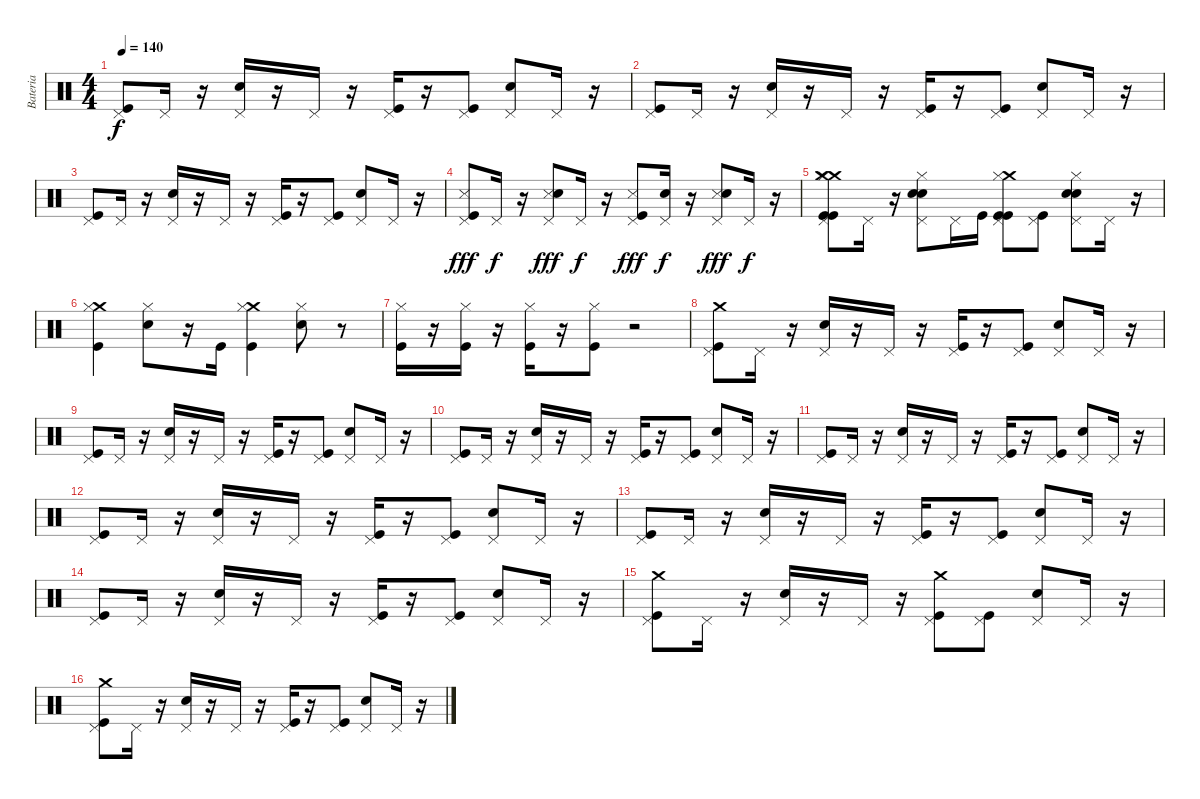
\track ("Bateria" "Bateria") {instrument percussion}
\staff {score}
\articulation defaults
\ts (4 4)
\tempo 140
\clef neutral
\ks c
("Pedal Hi-Hat (hit)" "Kick (hit)").8{dy f} "Pedal Hi-Hat (hit)".16 r.16 ("Pedal Hi-Hat (hit)" "Snare (hit) 2").16 r.16 "Pedal Hi-Hat (hit)".16 r.16 ("Pedal Hi-Hat (hit)" "Kick (hit)").16 r.16 ("Pedal Hi-Hat (hit)" "Kick (hit)").8 ("Pedal Hi-Hat (hit)" "Snare (hit) 2").8 "Pedal Hi-Hat (hit)".16 r.16 |
("Pedal Hi-Hat (hit)" "Kick (hit)").8 "Pedal Hi-Hat (hit)".16 r.16 ("Pedal Hi-Hat (hit)" "Snare (hit) 2").16 r.16 "Pedal Hi-Hat (hit)".16 r.16 ("Pedal Hi-Hat (hit)" "Kick (hit)").16 r.16 ("Pedal Hi-Hat (hit)" "Kick (hit)").8 ("Pedal Hi-Hat (hit)" "Snare (hit) 2").8 "Pedal Hi-Hat (hit)".16 r.16 |
("Pedal Hi-Hat (hit)" "Kick (hit)").8 "Pedal Hi-Hat (hit)".16 r.16 ("Pedal Hi-Hat (hit)" "Snare (hit) 2").16 r.16 "Pedal Hi-Hat (hit)".16 r.16 ("Pedal Hi-Hat (hit)" "Kick (hit)").16 r.16 ("Pedal Hi-Hat (hit)" "Kick (hit)").8 ("Pedal Hi-Hat (hit)" "Snare (hit) 2").8 "Pedal Hi-Hat (hit)".16 r.16 |
("Snare (side stick) 3" "Pedal Hi-Hat (hit)" "Kick (hit)").8{dy fff} "Pedal Hi-Hat (hit)".16{dy f} r.16 ("Snare (side stick) 3" "Pedal Hi-Hat (hit)" "Snare (hit) 2").8{dy fff} "Pedal Hi-Hat (hit)".16{dy f} r.16 ("Snare (side stick) 3" "Pedal Hi-Hat (hit)" "Kick (hit)").8{dy fff} ("Pedal Hi-Hat (hit)" "Snare (hit) 2").16{dy f} r.16 ("Snare (side stick) 3" "Pedal Hi-Hat (hit)" "Snare (hit) 2").8{dy fff} "Pedal Hi-Hat (hit)".16{dy f} r.16 |
("Crash medium (hit)" "Pedal Hi-Hat (hit)" "Kick (hit)" "Crash medium (hit)" "Hi-Hat (closed)" "Kick (hit)").8 "Pedal Hi-Hat (hit)".16 r.16 ("Pedal Hi-Hat (hit)" "Snare (hit) 2" "Hi-Hat (closed)" "Snare (hit) 2").8 "Pedal Hi-Hat (hit)".16 "Kick (hit)".16 ("Pedal Hi-Hat (hit)" "Kick (hit)" "Kick (hit)" "Crash medium (hit)" "Hi-Hat (closed)").8 ("Pedal Hi-Hat (hit)" "Kick (hit)").8 ("Pedal Hi-Hat (hit)" "Snare (hit) 2" "Snare (hit) 2" "Hi-Hat (closed)").8 "Pedal Hi-Hat (hit)".16 r.16 |
("Crash medium (hit)" "Hi-Hat (closed)" "Kick (hit)").4 ("Hi-Hat (closed)" "Snare (hit) 2").8 r.16 "Kick (hit)".16 ("Crash medium (hit)" "Hi-Hat (closed)" "Kick (hit)").4 ("Hi-Hat (closed)" "Snare (hit) 2").8 r.8 |
("Hi-Hat (closed)" "Kick (hit)").16 r.16 ("Hi-Hat (closed)" "Kick (hit)").16 r.16 ("Hi-Hat (closed)" "Kick (hit)").16 r.16 ("Hi-Hat (closed)" "Kick (hit)").8 r.2 |
("Crash medium (hit)" "Pedal Hi-Hat (hit)" "Kick (hit)").8 "Pedal Hi-Hat (hit)".16 r.16 ("Pedal Hi-Hat (hit)" "Snare (hit) 2").16 r.16 "Pedal Hi-Hat (hit)".16 r.16 ("Pedal Hi-Hat (hit)" "Kick (hit)").16 r.16 ("Pedal Hi-Hat (hit)" "Kick (hit)").8 ("Pedal Hi-Hat (hit)" "Snare (hit) 2").8 "Pedal Hi-Hat (hit)".16 r.16 |
("Pedal Hi-Hat (hit)" "Kick (hit)").8 "Pedal Hi-Hat (hit)".16 r.16 ("Pedal Hi-Hat (hit)" "Snare (hit) 2").16 r.16 "Pedal Hi-Hat (hit)".16 r.16 ("Pedal Hi-Hat (hit)" "Kick (hit)").16 r.16 ("Pedal Hi-Hat (hit)" "Kick (hit)").8 ("Pedal Hi-Hat (hit)" "Snare (hit) 2").8 "Pedal Hi-Hat (hit)".16 r.16 |
("Pedal Hi-Hat (hit)" "Kick (hit)").8 "Pedal Hi-Hat (hit)".16 r.16 ("Pedal Hi-Hat (hit)" "Snare (hit) 2").16 r.16 "Pedal Hi-Hat (hit)".16 r.16 ("Pedal Hi-Hat (hit)" "Kick (hit)").16 r.16 ("Pedal Hi-Hat (hit)" "Kick (hit)").8 ("Pedal Hi-Hat (hit)" "Snare (hit) 2").8 "Pedal Hi-Hat (hit)".16 r.16 |
("Pedal Hi-Hat (hit)" "Kick (hit)").8 "Pedal Hi-Hat (hit)".16 r.16 ("Pedal Hi-Hat (hit)" "Snare (hit) 2").16 r.16 "Pedal Hi-Hat (hit)".16 r.16 ("Pedal Hi-Hat (hit)" "Kick (hit)").16 r.16 ("Pedal Hi-Hat (hit)" "Kick (hit)").8 ("Pedal Hi-Hat (hit)" "Snare (hit) 2").8 "Pedal Hi-Hat (hit)".16 r.16 |
("Pedal Hi-Hat (hit)" "Kick (hit)").8 "Pedal Hi-Hat (hit)".16 r.16 ("Pedal Hi-Hat (hit)" "Snare (hit) 2").16 r.16 "Pedal Hi-Hat (hit)".16 r.16 ("Pedal Hi-Hat (hit)" "Kick (hit)").16 r.16 ("Pedal Hi-Hat (hit)" "Kick (hit)").8 ("Pedal Hi-Hat (hit)" "Snare (hit) 2").8 "Pedal Hi-Hat (hit)".16 r.16 |
("Pedal Hi-Hat (hit)" "Kick (hit)").8 "Pedal Hi-Hat (hit)".16 r.16 ("Pedal Hi-Hat (hit)" "Snare (hit) 2").16 r.16 "Pedal Hi-Hat (hit)".16 r.16 ("Pedal Hi-Hat (hit)" "Kick (hit)").16 r.16 ("Pedal Hi-Hat (hit)" "Kick (hit)").8 ("Pedal Hi-Hat (hit)" "Snare (hit) 2").8 "Pedal Hi-Hat (hit)".16 r.16 |
("Pedal Hi-Hat (hit)" "Kick (hit)").8 "Pedal Hi-Hat (hit)".16 r.16 ("Pedal Hi-Hat (hit)" "Snare (hit) 2").16 r.16 "Pedal Hi-Hat (hit)".16 r.16 ("Pedal Hi-Hat (hit)" "Kick (hit)").16 r.16 ("Pedal Hi-Hat (hit)" "Kick (hit)").8 ("Pedal Hi-Hat (hit)" "Snare (hit) 2").8 "Pedal Hi-Hat (hit)".16 r.16 |
("Crash medium (hit)" "Pedal Hi-Hat (hit)" "Kick (hit)").8 "Pedal Hi-Hat (hit)".16 r.16 ("Pedal Hi-Hat (hit)" "Snare (hit) 2").16 r.16 "Pedal Hi-Hat (hit)".16 r.16 ("Crash medium (hit)" "Pedal Hi-Hat (hit)" "Kick (hit)").8 ("Pedal Hi-Hat (hit)" "Kick (hit)").8 ("Pedal Hi-Hat (hit)" "Snare (hit) 2").8 "Pedal Hi-Hat (hit)".16 r.16 |
("Crash medium (hit)" "Pedal Hi-Hat (hit)" "Kick (hit)").8 "Pedal Hi-Hat (hit)".16 r.16 ("Pedal Hi-Hat (hit)" "Snare (hit) 2").16 r.16 "Pedal Hi-Hat (hit)".16 r.16 ("Pedal Hi-Hat (hit)" "Kick (hit)").16 r.16 ("Pedal Hi-Hat (hit)" "Kick (hit)").8 ("Pedal Hi-Hat (hit)" "Snare (hit) 2").8 "Pedal Hi-Hat (hit)".16 r.16
